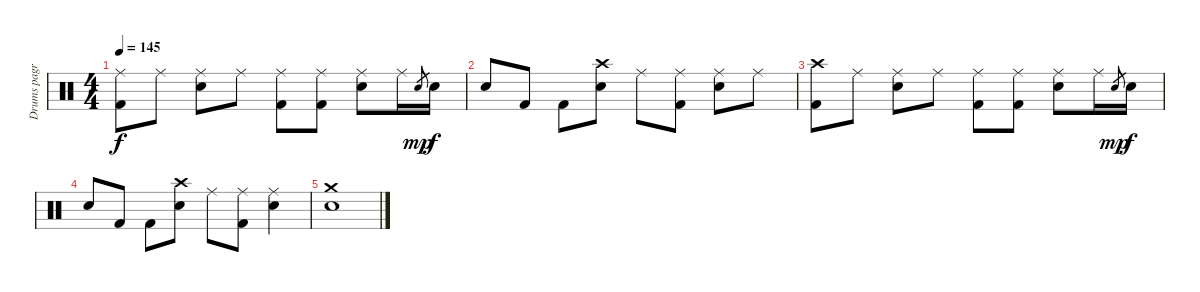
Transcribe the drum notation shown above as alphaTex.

\track ("Drums pagr" "Drums pagr") {instrument percussion}
\staff {score}
\articulation defaults
\ts (4 4)
\tempo 145
\clef neutral
\ks c
("Ride (middle)" "Kick (hit) 2").8{dy f} "Ride (middle)".8 ("Ride (middle)" "Snare (hit) 2").8 "Ride (middle)".8 ("Ride (middle)" "Kick (hit) 2").8 ("Ride (middle)" "Kick (hit) 2").8 ("Ride (middle)" "Snare (hit) 2").8 "Ride (middle)".16 "Snare (hit) 2".8{gr dy mp} "Snare (hit) 2".16{dy f} |
"Snare (hit) 2".8 "Kick (hit) 2".8 "Kick (hit) 2".8 ("Crash high (hit)" "Snare (hit) 2").8 "Ride (middle)".8 ("Ride (middle)" "Kick (hit) 2").8 ("Ride (middle)" "Snare (hit) 2").8 "Ride (middle)".8 |
("Crash high (hit)" "Kick (hit) 2").8 "Ride (middle)".8 ("Ride (middle)" "Snare (hit) 2").8 "Ride (middle)".8 ("Ride (middle)" "Kick (hit) 2").8 ("Ride (middle)" "Kick (hit) 2").8 ("Ride (middle)" "Snare (hit) 2").8 "Ride (middle)".16 "Snare (hit) 2".8{gr dy mp} "Snare (hit) 2".16{dy f} |
"Snare (hit) 2".8 "Kick (hit) 2".8 "Kick (hit) 2".8 ("Crash high (hit)" "Snare (hit) 2").8 "Ride (middle)".8 ("Ride (middle)" "Kick (hit) 2").8 ("Ride (middle)" "Snare (hit) 2").4 |
("Crash medium (hit)" "Snare (hit) 2").1
